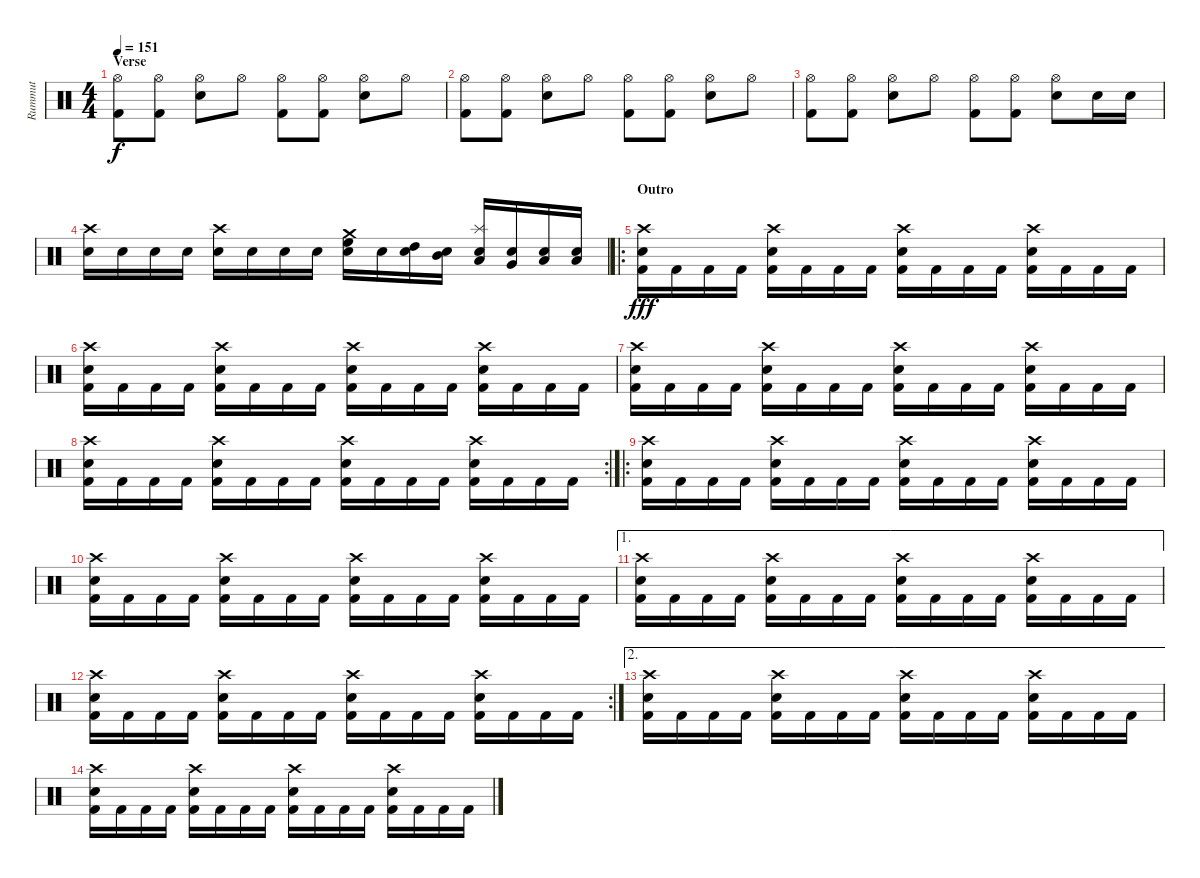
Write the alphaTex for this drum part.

\track ("Rummut" "Rummut") {instrument percussion}
\staff {score}
\articulation defaults
\ts (4 4)
\section ("" "Verse")
\tempo 151
\clef neutral
\ks c
("Hi-Hat (open)" "Kick (hit) 2").8{dy f} ("Hi-Hat (open)" "Kick (hit) 2").8 ("Hi-Hat (open)" "Electric Snare (hit)").8 "Hi-Hat (open)".8 ("Hi-Hat (open)" "Kick (hit) 2").8 ("Hi-Hat (open)" "Kick (hit) 2").8 ("Hi-Hat (open)" "Electric Snare (hit)").8 "Hi-Hat (open)".8 |
("Hi-Hat (open)" "Kick (hit) 2").8 ("Hi-Hat (open)" "Kick (hit) 2").8 ("Hi-Hat (open)" "Electric Snare (hit)").8 "Hi-Hat (open)".8 ("Hi-Hat (open)" "Kick (hit) 2").8 ("Hi-Hat (open)" "Kick (hit) 2").8 ("Hi-Hat (open)" "Electric Snare (hit)").8 "Hi-Hat (open)".8 |
("Hi-Hat (open)" "Kick (hit) 2").8 ("Hi-Hat (open)" "Kick (hit) 2").8 ("Hi-Hat (open)" "Electric Snare (hit)").8 "Hi-Hat (open)".8 ("Hi-Hat (open)" "Kick (hit) 2").8 ("Hi-Hat (open)" "Kick (hit) 2").8 ("Hi-Hat (open)" "Electric Snare (hit)").8 "Electric Snare (hit)".16 "Electric Snare (hit)".16 |
("Crash high (hit)" "Electric Snare (hit)").16 "Electric Snare (hit)".16 "Electric Snare (hit)".16 "Electric Snare (hit)".16 ("Crash high (hit)" "Electric Snare (hit)").16 "Electric Snare (hit)".16 "Electric Snare (hit)".16 "Electric Snare (hit)".16 ("Crash medium (hit)" "High Floor Tom (hit)" "Electric Snare (hit)").16 "Electric Snare (hit)".16 ("High Tom (hit)" "Electric Snare (hit)").16 ("Mid Tom (hit)" "Electric Snare (hit)").16 ("Splash (hit)" "Low Tom (hit)" "Electric Snare (hit)").16 ("Very Low Tom (hit)" "Electric Snare (hit)").16 ("Low Floor Tom (hit)" "Electric Snare (hit)").16 ("Low Floor Tom (hit)" "Electric Snare (hit)").16 |
\ro
\section ("" "Outro")
("Crash high (hit)" "Electric Snare (hit)" "Kick (hit) 2").16{dy fff} "Kick (hit) 2".16 "Kick (hit) 2".16 "Kick (hit) 2".16 ("Crash high (hit)" "Electric Snare (hit)" "Kick (hit) 2").16 "Kick (hit) 2".16 "Kick (hit) 2".16 "Kick (hit) 2".16 ("Crash high (hit)" "Electric Snare (hit)" "Kick (hit) 2").16 "Kick (hit) 2".16 "Kick (hit) 2".16 "Kick (hit) 2".16 ("Crash high (hit)" "Electric Snare (hit)" "Kick (hit) 2").16 "Kick (hit) 2".16 "Kick (hit) 2".16 "Kick (hit) 2".16 |
("Crash high (hit)" "Electric Snare (hit)" "Kick (hit) 2").16 "Kick (hit) 2".16 "Kick (hit) 2".16 "Kick (hit) 2".16 ("Crash high (hit)" "Electric Snare (hit)" "Kick (hit) 2").16 "Kick (hit) 2".16 "Kick (hit) 2".16 "Kick (hit) 2".16 ("Crash high (hit)" "Electric Snare (hit)" "Kick (hit) 2").16 "Kick (hit) 2".16 "Kick (hit) 2".16 "Kick (hit) 2".16 ("Crash high (hit)" "Electric Snare (hit)" "Kick (hit) 2").16 "Kick (hit) 2".16 "Kick (hit) 2".16 "Kick (hit) 2".16 |
("Crash high (hit)" "Electric Snare (hit)" "Kick (hit) 2").16 "Kick (hit) 2".16 "Kick (hit) 2".16 "Kick (hit) 2".16 ("Crash high (hit)" "Electric Snare (hit)" "Kick (hit) 2").16 "Kick (hit) 2".16 "Kick (hit) 2".16 "Kick (hit) 2".16 ("Crash high (hit)" "Electric Snare (hit)" "Kick (hit) 2").16 "Kick (hit) 2".16 "Kick (hit) 2".16 "Kick (hit) 2".16 ("Crash high (hit)" "Electric Snare (hit)" "Kick (hit) 2").16 "Kick (hit) 2".16 "Kick (hit) 2".16 "Kick (hit) 2".16 |
\rc 2
("Crash high (hit)" "Electric Snare (hit)" "Kick (hit) 2").16 "Kick (hit) 2".16 "Kick (hit) 2".16 "Kick (hit) 2".16 ("Crash high (hit)" "Electric Snare (hit)" "Kick (hit) 2").16 "Kick (hit) 2".16 "Kick (hit) 2".16 "Kick (hit) 2".16 ("Crash high (hit)" "Electric Snare (hit)" "Kick (hit) 2").16 "Kick (hit) 2".16 "Kick (hit) 2".16 "Kick (hit) 2".16 ("Crash high (hit)" "Electric Snare (hit)" "Kick (hit) 2").16 "Kick (hit) 2".16 "Kick (hit) 2".16 "Kick (hit) 2".16 |
\ro
("Crash high (hit)" "Electric Snare (hit)" "Kick (hit) 2").16 "Kick (hit) 2".16 "Kick (hit) 2".16 "Kick (hit) 2".16 ("Crash high (hit)" "Electric Snare (hit)" "Kick (hit) 2").16 "Kick (hit) 2".16 "Kick (hit) 2".16 "Kick (hit) 2".16 ("Crash high (hit)" "Electric Snare (hit)" "Kick (hit) 2").16 "Kick (hit) 2".16 "Kick (hit) 2".16 "Kick (hit) 2".16 ("Crash high (hit)" "Electric Snare (hit)" "Kick (hit) 2").16 "Kick (hit) 2".16 "Kick (hit) 2".16 "Kick (hit) 2".16 |
("Crash high (hit)" "Electric Snare (hit)" "Kick (hit) 2").16 "Kick (hit) 2".16 "Kick (hit) 2".16 "Kick (hit) 2".16 ("Crash high (hit)" "Electric Snare (hit)" "Kick (hit) 2").16 "Kick (hit) 2".16 "Kick (hit) 2".16 "Kick (hit) 2".16 ("Crash high (hit)" "Electric Snare (hit)" "Kick (hit) 2").16 "Kick (hit) 2".16 "Kick (hit) 2".16 "Kick (hit) 2".16 ("Crash high (hit)" "Electric Snare (hit)" "Kick (hit) 2").16 "Kick (hit) 2".16 "Kick (hit) 2".16 "Kick (hit) 2".16 |
\ae 1
("Crash high (hit)" "Electric Snare (hit)" "Kick (hit) 2").16 "Kick (hit) 2".16 "Kick (hit) 2".16 "Kick (hit) 2".16 ("Crash high (hit)" "Electric Snare (hit)" "Kick (hit) 2").16 "Kick (hit) 2".16 "Kick (hit) 2".16 "Kick (hit) 2".16 ("Crash high (hit)" "Electric Snare (hit)" "Kick (hit) 2").16 "Kick (hit) 2".16 "Kick (hit) 2".16 "Kick (hit) 2".16 ("Crash high (hit)" "Electric Snare (hit)" "Kick (hit) 2").16 "Kick (hit) 2".16 "Kick (hit) 2".16 "Kick (hit) 2".16 |
\rc 2
("Crash high (hit)" "Electric Snare (hit)" "Kick (hit) 2").16 "Kick (hit) 2".16 "Kick (hit) 2".16 "Kick (hit) 2".16 ("Crash high (hit)" "Electric Snare (hit)" "Kick (hit) 2").16 "Kick (hit) 2".16 "Kick (hit) 2".16 "Kick (hit) 2".16 ("Crash high (hit)" "Electric Snare (hit)" "Kick (hit) 2").16 "Kick (hit) 2".16 "Kick (hit) 2".16 "Kick (hit) 2".16 ("Crash high (hit)" "Electric Snare (hit)" "Kick (hit) 2").16 "Kick (hit) 2".16 "Kick (hit) 2".16 "Kick (hit) 2".16 |
\ae 2
("Crash high (hit)" "Electric Snare (hit)" "Kick (hit) 2").16{volume 0} "Kick (hit) 2".16 "Kick (hit) 2".16 "Kick (hit) 2".16 ("Crash high (hit)" "Electric Snare (hit)" "Kick (hit) 2").16 "Kick (hit) 2".16 "Kick (hit) 2".16 "Kick (hit) 2".16 ("Crash high (hit)" "Electric Snare (hit)" "Kick (hit) 2").16 "Kick (hit) 2".16 "Kick (hit) 2".16 "Kick (hit) 2".16 ("Crash high (hit)" "Electric Snare (hit)" "Kick (hit) 2").16 "Kick (hit) 2".16 "Kick (hit) 2".16 "Kick (hit) 2".16 |
("Crash high (hit)" "Electric Snare (hit)" "Kick (hit) 2").16 "Kick (hit) 2".16 "Kick (hit) 2".16 "Kick (hit) 2".16 ("Crash high (hit)" "Electric Snare (hit)" "Kick (hit) 2").16 "Kick (hit) 2".16 "Kick (hit) 2".16 "Kick (hit) 2".16 ("Crash high (hit)" "Electric Snare (hit)" "Kick (hit) 2").16 "Kick (hit) 2".16 "Kick (hit) 2".16 "Kick (hit) 2".16 ("Crash high (hit)" "Electric Snare (hit)" "Kick (hit) 2").16 "Kick (hit) 2".16 "Kick (hit) 2".16 "Kick (hit) 2".16
